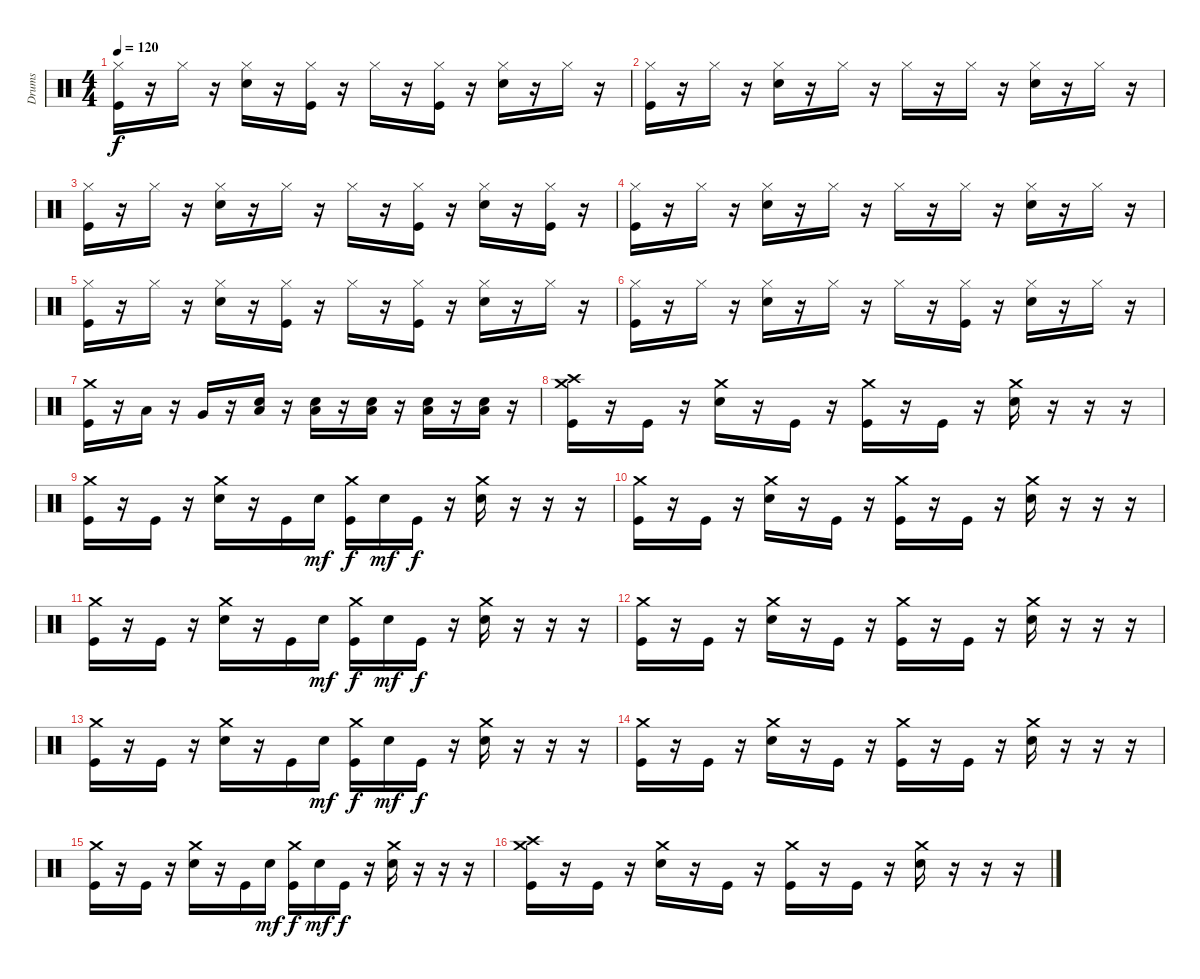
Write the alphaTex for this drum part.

\track ("Drums" "Drums") {instrument percussion}
\staff {score}
\articulation defaults
\ts (4 4)
\tempo 120
\clef neutral
\ks c
("Kick (hit)" "Hi-Hat (closed)").16{dy f} r.16 "Hi-Hat (closed)".16 r.16 ("Electric Snare (hit)" "Hi-Hat (closed)").16 r.16 ("Kick (hit)" "Hi-Hat (closed)").16 r.16 "Hi-Hat (closed)".16 r.16 ("Kick (hit)" "Hi-Hat (closed)").16 r.16 ("Electric Snare (hit)" "Hi-Hat (closed)").16 r.16 "Hi-Hat (closed)".16 r.16 |
("Kick (hit)" "Hi-Hat (closed)").16 r.16 "Hi-Hat (closed)".16 r.16 ("Electric Snare (hit)" "Hi-Hat (closed)").16 r.16 "Hi-Hat (closed)".16 r.16 "Hi-Hat (closed)".16 r.16 "Hi-Hat (closed)".16 r.16 ("Electric Snare (hit)" "Hi-Hat (closed)").16 r.16 "Hi-Hat (closed)".16 r.16 |
("Kick (hit)" "Hi-Hat (closed)").16 r.16 "Hi-Hat (closed)".16 r.16 ("Electric Snare (hit)" "Hi-Hat (closed)").16 r.16 "Hi-Hat (closed)".16 r.16 "Hi-Hat (closed)".16 r.16 ("Kick (hit)" "Hi-Hat (closed)").16 r.16 ("Electric Snare (hit)" "Hi-Hat (closed)").16 r.16 ("Kick (hit)" "Hi-Hat (closed)").16 r.16 |
("Kick (hit)" "Hi-Hat (closed)").16 r.16 "Hi-Hat (closed)".16 r.16 ("Electric Snare (hit)" "Hi-Hat (closed)").16 r.16 "Hi-Hat (closed)".16 r.16 "Hi-Hat (closed)".16 r.16 "Hi-Hat (closed)".16 r.16 ("Electric Snare (hit)" "Hi-Hat (closed)").16 r.16 "Hi-Hat (closed)".16 r.16 |
("Kick (hit)" "Hi-Hat (closed)").16 r.16 "Hi-Hat (closed)".16 r.16 ("Electric Snare (hit)" "Hi-Hat (closed)").16 r.16 ("Kick (hit)" "Hi-Hat (closed)").16 r.16 "Hi-Hat (closed)".16 r.16 ("Kick (hit)" "Hi-Hat (closed)").16 r.16 ("Electric Snare (hit)" "Hi-Hat (closed)").16 r.16 "Hi-Hat (closed)".16 r.16 |
("Kick (hit)" "Hi-Hat (closed)").16 r.16 "Hi-Hat (closed)".16 r.16 ("Electric Snare (hit)" "Hi-Hat (closed)").16 r.16 "Hi-Hat (closed)".16 r.16 "Hi-Hat (closed)".16 r.16 ("Kick (hit)" "Hi-Hat (closed)").16 r.16 ("Electric Snare (hit)" "Hi-Hat (closed)").16 r.16 "Hi-Hat (closed)".16 r.16 |
("Kick (hit)" "Crash medium (hit)").16 r.16 "Low Tom (hit)".16 r.16 "Very Low Tom (hit)".16 r.16 ("Electric Snare (hit)" "Low Floor Tom (hit)").16 r.16 ("Electric Snare (hit)" "Low Floor Tom (hit)").16 r.16 ("Electric Snare (hit)" "Low Floor Tom (hit)").16 r.16 ("Electric Snare (hit)" "Low Floor Tom (hit)").16 r.16 ("Electric Snare (hit)" "Low Floor Tom (hit)").16 r.16 |
("Kick (hit)" "Crash high (hit)" "Crash medium (hit)").16 r.16 "Kick (hit)".16 r.16 ("Electric Snare (hit)" "Crash medium (hit)").16 r.16 "Kick (hit)".16 r.16 ("Kick (hit)" "Crash medium (hit)").16 r.16 "Kick (hit)".16 r.16 ("Electric Snare (hit)" "Crash medium (hit)").16 r.16 r.16 r.16 |
("Kick (hit)" "Crash medium (hit)").16 r.16 "Kick (hit)".16 r.16 ("Electric Snare (hit)" "Crash medium (hit)").16 r.16 "Kick (hit)".16 "Electric Snare (hit)".16{dy mf} ("Kick (hit)" "Crash medium (hit)").16{dy f} "Electric Snare (hit)".16{dy mf} "Kick (hit)".16{dy f} r.16 ("Electric Snare (hit)" "Crash medium (hit)").16 r.16 r.16 r.16 |
("Kick (hit)" "Crash medium (hit)").16 r.16 "Kick (hit)".16 r.16 ("Electric Snare (hit)" "Crash medium (hit)").16 r.16 "Kick (hit)".16 r.16 ("Kick (hit)" "Crash medium (hit)").16 r.16 "Kick (hit)".16 r.16 ("Electric Snare (hit)" "Crash medium (hit)").16 r.16 r.16 r.16 |
("Kick (hit)" "Crash medium (hit)").16 r.16 "Kick (hit)".16 r.16 ("Electric Snare (hit)" "Crash medium (hit)").16 r.16 "Kick (hit)".16 "Electric Snare (hit)".16{dy mf} ("Kick (hit)" "Crash medium (hit)").16{dy f} "Electric Snare (hit)".16{dy mf} "Kick (hit)".16{dy f} r.16 ("Electric Snare (hit)" "Crash medium (hit)").16 r.16 r.16 r.16 |
("Kick (hit)" "Crash medium (hit)").16 r.16 "Kick (hit)".16 r.16 ("Electric Snare (hit)" "Crash medium (hit)").16 r.16 "Kick (hit)".16 r.16 ("Kick (hit)" "Crash medium (hit)").16 r.16 "Kick (hit)".16 r.16 ("Electric Snare (hit)" "Crash medium (hit)").16 r.16 r.16 r.16 |
("Kick (hit)" "Crash medium (hit)").16 r.16 "Kick (hit)".16 r.16 ("Electric Snare (hit)" "Crash medium (hit)").16 r.16 "Kick (hit)".16 "Electric Snare (hit)".16{dy mf} ("Kick (hit)" "Crash medium (hit)").16{dy f} "Electric Snare (hit)".16{dy mf} "Kick (hit)".16{dy f} r.16 ("Electric Snare (hit)" "Crash medium (hit)").16 r.16 r.16 r.16 |
("Kick (hit)" "Crash medium (hit)").16 r.16 "Kick (hit)".16 r.16 ("Electric Snare (hit)" "Crash medium (hit)").16 r.16 "Kick (hit)".16 r.16 ("Kick (hit)" "Crash medium (hit)").16 r.16 "Kick (hit)".16 r.16 ("Electric Snare (hit)" "Crash medium (hit)").16 r.16 r.16 r.16 |
("Kick (hit)" "Crash medium (hit)").16 r.16 "Kick (hit)".16 r.16 ("Electric Snare (hit)" "Crash medium (hit)").16 r.16 "Kick (hit)".16 "Electric Snare (hit)".16{dy mf} ("Kick (hit)" "Crash medium (hit)").16{dy f} "Electric Snare (hit)".16{dy mf} "Kick (hit)".16{dy f} r.16 ("Electric Snare (hit)" "Crash medium (hit)").16 r.16 r.16 r.16 |
("Kick (hit)" "Crash high (hit)" "Crash medium (hit)").16 r.16 "Kick (hit)".16 r.16 ("Electric Snare (hit)" "Crash medium (hit)").16 r.16 "Kick (hit)".16 r.16 ("Kick (hit)" "Crash medium (hit)").16 r.16 "Kick (hit)".16 r.16 ("Electric Snare (hit)" "Crash medium (hit)").16 r.16 r.16 r.16
